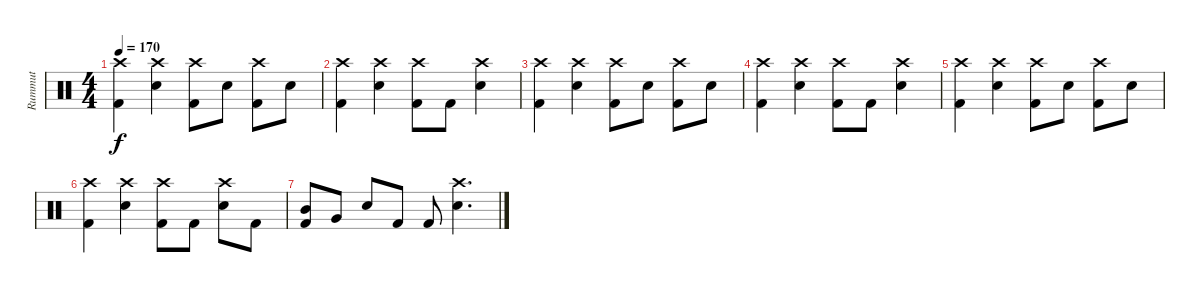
\track ("Rummut" "Rummut") {instrument percussion}
\staff {score}
\articulation defaults
\ts (4 4)
\tempo 170
\clef neutral
\ks c
("Crash high (hit)" "Kick (hit) 2").4{dy f} ("Crash high (hit)" "Electric Snare (hit)").4 ("Crash high (hit)" "Kick (hit) 2").8 "Electric Snare (hit)".8 ("Crash high (hit)" "Kick (hit) 2").8 "Electric Snare (hit)".8 |
("Crash high (hit)" "Kick (hit) 2").4 ("Crash high (hit)" "Electric Snare (hit)").4 ("Crash high (hit)" "Kick (hit) 2").8 "Kick (hit) 2".8 ("Crash high (hit)" "Electric Snare (hit)").4 |
("Crash high (hit)" "Kick (hit) 2").4 ("Crash high (hit)" "Electric Snare (hit)").4 ("Crash high (hit)" "Kick (hit) 2").8 "Electric Snare (hit)".8 ("Crash high (hit)" "Kick (hit) 2").8 "Electric Snare (hit)".8 |
("Crash high (hit)" "Kick (hit) 2").4 ("Crash high (hit)" "Electric Snare (hit)").4 ("Crash high (hit)" "Kick (hit) 2").8 "Kick (hit) 2".8 ("Crash high (hit)" "Electric Snare (hit)").4 |
("Crash high (hit)" "Kick (hit) 2").4 ("Crash high (hit)" "Electric Snare (hit)").4 ("Crash high (hit)" "Kick (hit) 2").8 "Electric Snare (hit)".8 ("Crash high (hit)" "Kick (hit) 2").8 "Electric Snare (hit)".8 |
("Crash high (hit)" "Kick (hit) 2").4 ("Crash high (hit)" "Electric Snare (hit)").4 ("Crash high (hit)" "Kick (hit) 2").8 "Kick (hit) 2".8 ("Crash high (hit)" "Electric Snare (hit)").8 "Kick (hit) 2".8 |
("Mid Tom (hit)" "Kick (hit) 2").8 "Very Low Tom (hit)".8 "Electric Snare (hit)".8 "Kick (hit) 2".8 "Kick (hit) 2".8 ("Crash high (hit)" "Electric Snare (hit)").4{d}
